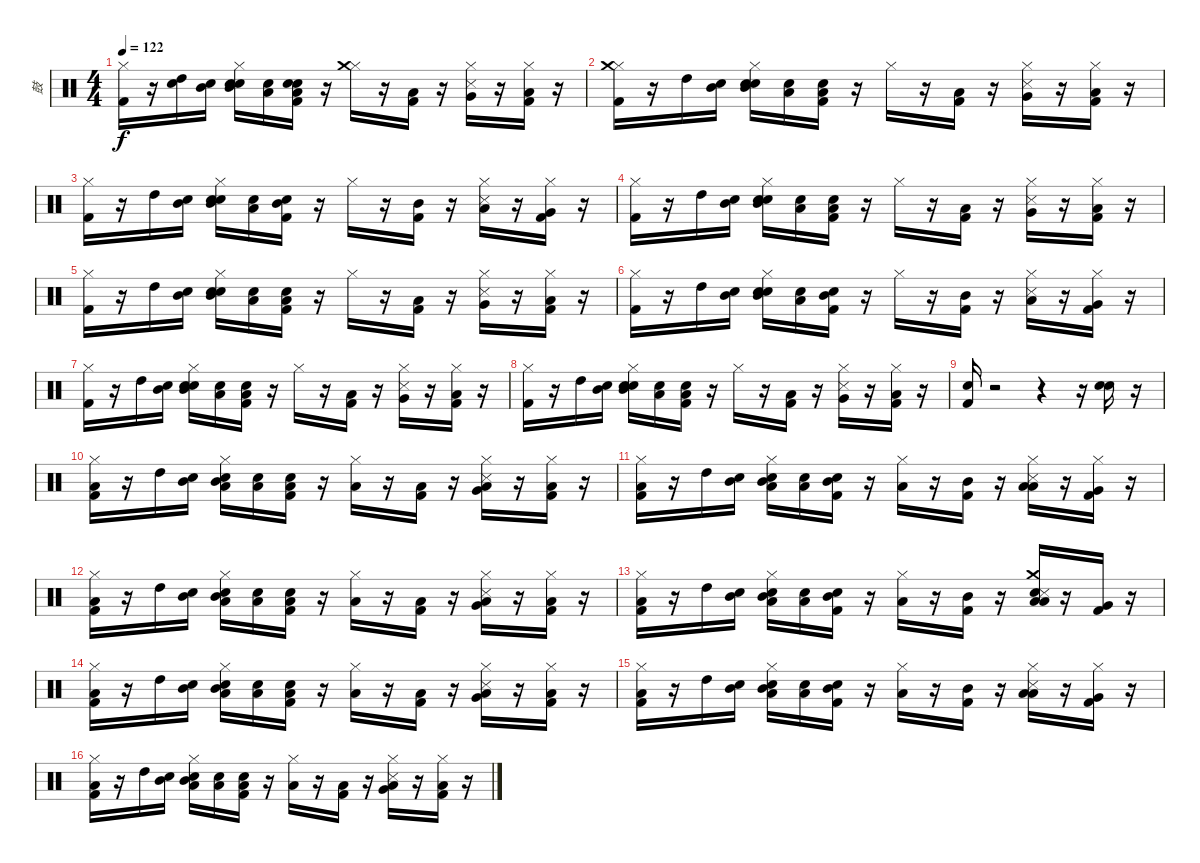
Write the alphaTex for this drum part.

\track ("鼓" "鼓") {instrument percussion}
\staff {score}
\articulation defaults
\ts (4 4)
\tempo 122
\clef neutral
\ks c
("Hi-Hat (closed)" "Kick (hit) 2").16{dy f} r.16 ("High Tom (hit)" "Snare (hit) 2").16 ("Snare (hit)" "Mid Tom (hit)").16 ("Snare (hit)" "Snare (hit) 2" "Hi-Hat (closed)" "Mid Tom (hit)").16 ("Snare (hit)" "Low Tom (hit)").16 ("Snare (hit)" "Low Tom (hit)" "Kick (hit) 2" "Snare (hit) 2").16 r.16 ("Hi-Hat (closed)" "Crash medium (hit)").16 r.16 ("Kick (hit) 2" "Low Tom (hit)").16 r.16 ("Hi-Hat (closed)" "Very Low Tom (hit)" "Snare (side stick) 3").16 r.16 ("Kick (hit) 2" "Low Floor Tom (hit)" "Hi-Hat (closed)").16 r.16 |
("Kick (hit) 2" "Hi-Hat (closed)" "Crash medium (hit)").16 r.16 "High Tom (hit)".16 ("Snare (hit)" "Mid Tom (hit)").16 ("Snare (hit)" "Snare (hit) 2" "Mid Tom (hit)" "Hi-Hat (closed)").16 ("Snare (hit)" "Low Tom (hit)").16 ("Snare (hit)" "Low Tom (hit)" "Kick (hit) 2").16 r.16 "Hi-Hat (closed)".16 r.16 ("Kick (hit) 2" "Low Tom (hit)").16 r.16 ("Very Low Tom (hit)" "Hi-Hat (closed)" "Snare (side stick) 3").16 r.16 ("Kick (hit) 2" "Low Floor Tom (hit)" "Hi-Hat (closed)").16 r.16 |
("Kick (hit) 2" "Hi-Hat (closed)").16 r.16 "High Tom (hit)".16 ("Snare (hit)" "Mid Tom (hit)").16 ("Snare (hit)" "Snare (hit) 2" "Hi-Hat (closed)" "Mid Tom (hit)").16 ("Snare (hit)" "Low Tom (hit)").16 ("Snare (hit)" "Kick (hit) 2" "Mid Tom (hit)").16 r.16 "Hi-Hat (closed)".16 r.16 ("Kick (hit) 2" "Mid Tom (hit)").16 r.16 ("Hi-Hat (closed)" "Low Tom (hit)" "Snare (side stick) 3").16 r.16 ("Kick (hit) 2" "Very Low Tom (hit)" "Hi-Hat (closed)").16 r.16 |
("Hi-Hat (closed)" "Kick (hit) 2").16 r.16 "High Tom (hit)".16 ("Snare (hit)" "Mid Tom (hit)").16 ("Snare (hit)" "Snare (hit) 2" "Hi-Hat (closed)" "Mid Tom (hit)").16 ("Snare (hit)" "Low Tom (hit)").16 ("Snare (hit)" "Low Tom (hit)" "Kick (hit) 2").16 r.16 "Hi-Hat (closed)".16 r.16 ("Kick (hit) 2" "Low Tom (hit)").16 r.16 ("Hi-Hat (closed)" "Very Low Tom (hit)" "Snare (side stick) 3").16 r.16 ("Kick (hit) 2" "Low Floor Tom (hit)" "Hi-Hat (closed)").16 r.16 |
("Hi-Hat (closed)" "Kick (hit) 2").16 r.16 "High Tom (hit)".16 ("Snare (hit)" "Mid Tom (hit)").16 ("Snare (hit)" "Snare (hit) 2" "Hi-Hat (closed)" "Mid Tom (hit)").16 ("Snare (hit)" "Low Tom (hit)").16 ("Snare (hit)" "Low Tom (hit)" "Kick (hit) 2").16 r.16 "Hi-Hat (closed)".16 r.16 ("Kick (hit) 2" "Low Tom (hit)").16 r.16 ("Hi-Hat (closed)" "Very Low Tom (hit)" "Snare (side stick) 3").16 r.16 ("Kick (hit) 2" "Low Floor Tom (hit)" "Hi-Hat (closed)").16 r.16 |
("Kick (hit) 2" "Hi-Hat (closed)").16 r.16 "High Tom (hit)".16 ("Snare (hit)" "Mid Tom (hit)").16 ("Snare (hit)" "Snare (hit) 2" "Hi-Hat (closed)" "Mid Tom (hit)").16 ("Snare (hit)" "Low Tom (hit)").16 ("Snare (hit)" "Kick (hit) 2" "Mid Tom (hit)").16 r.16 "Hi-Hat (closed)".16 r.16 ("Kick (hit) 2" "Mid Tom (hit)").16 r.16 ("Hi-Hat (closed)" "Low Tom (hit)" "Snare (side stick) 3").16 r.16 ("Kick (hit) 2" "Very Low Tom (hit)" "Hi-Hat (closed)").16 r.16 |
("Hi-Hat (closed)" "Kick (hit) 2").16 r.16 "High Tom (hit)".16 ("Snare (hit)" "Mid Tom (hit)").16 ("Snare (hit)" "Snare (hit) 2" "Hi-Hat (closed)" "Mid Tom (hit)").16 ("Snare (hit)" "Low Tom (hit)").16 ("Snare (hit)" "Low Tom (hit)" "Kick (hit) 2").16 r.16 "Hi-Hat (closed)".16 r.16 ("Kick (hit) 2" "Low Tom (hit)").16 r.16 ("Hi-Hat (closed)" "Very Low Tom (hit)" "Snare (side stick) 3").16 r.16 ("Kick (hit) 2" "Low Floor Tom (hit)" "Hi-Hat (closed)").16 r.16 |
("Hi-Hat (closed)" "Kick (hit) 2").16 r.16 "High Tom (hit)".16 ("Snare (hit)" "Mid Tom (hit)").16 ("Snare (hit)" "Snare (hit) 2" "Hi-Hat (closed)" "Mid Tom (hit)").16 ("Snare (hit)" "Low Tom (hit)").16 ("Snare (hit)" "Low Tom (hit)" "Kick (hit) 2").16 r.16 "Hi-Hat (closed)".16 r.16 ("Kick (hit) 2" "Low Tom (hit)").16 r.16 ("Hi-Hat (closed)" "Very Low Tom (hit)" "Snare (side stick) 3").16 r.16 ("Kick (hit) 2" "Low Floor Tom (hit)" "Hi-Hat (closed)").16 r.16 |
("Kick (hit) 2" "Electric Snare (hit)").16 r.2 r.4 r.16 ("Electric Snare (hit)" "Snare (hit) 2").16 r.16 |
("Kick (hit) 2" "Hi-Hat (closed)" "Low Floor Tom (hit)").16 r.16 "High Tom (hit)".16 ("Snare (hit)" "Mid Tom (hit)").16 ("Snare (hit)" "Mid Tom (hit)" "Hi-Hat (closed)" "Low Floor Tom (hit)").16 ("Snare (hit)" "Low Tom (hit)").16 ("Snare (hit)" "Low Tom (hit)" "Kick (hit) 2").16 r.16 ("Low Floor Tom (hit)" "Hi-Hat (closed)").16 r.16 ("Kick (hit) 2" "Low Tom (hit)").16 r.16 ("Low Floor Tom (hit)" "Very Low Tom (hit)" "Hi-Hat (closed)" "Snare (side stick) 3").16 r.16 ("Kick (hit) 2" "Low Floor Tom (hit)" "Hi-Hat (closed)").16 r.16 |
("Low Floor Tom (hit)" "Kick (hit) 2" "Hi-Hat (closed)").16 r.16 "High Tom (hit)".16 ("Snare (hit)" "Mid Tom (hit)").16 ("Snare (hit)" "Hi-Hat (closed)" "Mid Tom (hit)" "Low Floor Tom (hit)").16 ("Snare (hit)" "Low Tom (hit)").16 ("Snare (hit)" "Kick (hit) 2" "Mid Tom (hit)").16 r.16 ("Hi-Hat (closed)" "Low Floor Tom (hit)").16 r.16 ("Kick (hit) 2" "Mid Tom (hit)").16 r.16 ("Hi-Hat (closed)" "Low Tom (hit)" "Snare (side stick) 3" "Low Floor Tom (hit)").16 r.16 ("Kick (hit) 2" "Very Low Tom (hit)" "Hi-Hat (closed)").16 r.16 |
("Hi-Hat (closed)" "Kick (hit) 2" "Low Floor Tom (hit)").16 r.16 "High Tom (hit)".16 ("Snare (hit)" "Mid Tom (hit)").16 ("Snare (hit)" "Low Floor Tom (hit)" "Hi-Hat (closed)" "Mid Tom (hit)").16 ("Snare (hit)" "Low Tom (hit)").16 ("Snare (hit)" "Low Tom (hit)" "Kick (hit) 2").16 r.16 ("Low Floor Tom (hit)" "Hi-Hat (closed)").16 r.16 ("Kick (hit) 2" "Low Tom (hit)").16 r.16 ("Low Floor Tom (hit)" "Hi-Hat (closed)" "Very Low Tom (hit)" "Snare (side stick) 3").16 r.16 ("Kick (hit) 2" "Low Floor Tom (hit)" "Hi-Hat (closed)").16 r.16 |
("Low Floor Tom (hit)" "Kick (hit) 2" "Hi-Hat (closed)").16 r.16 "High Tom (hit)".16 ("Snare (hit)" "Mid Tom (hit)").16 ("Snare (hit)" "Hi-Hat (closed)" "Mid Tom (hit)" "Low Floor Tom (hit)").16 ("Snare (hit)" "Low Tom (hit)").16 ("Snare (hit)" "Kick (hit) 2" "Mid Tom (hit)").16 r.16 ("Hi-Hat (closed)" "Low Floor Tom (hit)").16 r.16 ("Kick (hit) 2" "Mid Tom (hit)").16 r.16 ("Low Floor Tom (hit)" "Snare (hit) 2" "Low Tom (hit)" "Crash medium (hit)" "Snare (side stick) 3").16 r.16 ("Kick (hit) 2" "Very Low Tom (hit)").16 r.16 |
("Kick (hit) 2" "Hi-Hat (closed)" "Low Floor Tom (hit)").16 r.16 "High Tom (hit)".16 ("Snare (hit)" "Mid Tom (hit)").16 ("Snare (hit)" "Mid Tom (hit)" "Hi-Hat (closed)" "Low Floor Tom (hit)").16 ("Snare (hit)" "Low Tom (hit)").16 ("Snare (hit)" "Low Tom (hit)" "Kick (hit) 2").16 r.16 ("Low Floor Tom (hit)" "Hi-Hat (closed)").16 r.16 ("Kick (hit) 2" "Low Tom (hit)").16 r.16 ("Low Floor Tom (hit)" "Very Low Tom (hit)" "Hi-Hat (closed)" "Snare (side stick) 3").16 r.16 ("Kick (hit) 2" "Low Floor Tom (hit)" "Hi-Hat (closed)").16 r.16 |
("Low Floor Tom (hit)" "Kick (hit) 2" "Hi-Hat (closed)").16 r.16 "High Tom (hit)".16 ("Snare (hit)" "Mid Tom (hit)").16 ("Snare (hit)" "Hi-Hat (closed)" "Mid Tom (hit)" "Low Floor Tom (hit)").16 ("Snare (hit)" "Low Tom (hit)").16 ("Snare (hit)" "Kick (hit) 2" "Mid Tom (hit)").16 r.16 ("Low Floor Tom (hit)" "Hi-Hat (closed)").16 r.16 ("Kick (hit) 2" "Mid Tom (hit)").16 r.16 ("Low Floor Tom (hit)" "Hi-Hat (closed)" "Low Tom (hit)" "Snare (side stick) 3").16 r.16 ("Kick (hit) 2" "Very Low Tom (hit)" "Hi-Hat (closed)").16 r.16 |
("Low Floor Tom (hit)" "Hi-Hat (closed)" "Kick (hit) 2").16 r.16 "High Tom (hit)".16 ("Snare (hit)" "Mid Tom (hit)").16 ("Snare (hit)" "Low Floor Tom (hit)" "Hi-Hat (closed)" "Mid Tom (hit)").16 ("Snare (hit)" "Low Tom (hit)").16 ("Snare (hit)" "Low Tom (hit)" "Kick (hit) 2").16 r.16 ("Low Floor Tom (hit)" "Hi-Hat (closed)").16 r.16 ("Kick (hit) 2" "Low Tom (hit)").16 r.16 ("Low Floor Tom (hit)" "Hi-Hat (closed)" "Very Low Tom (hit)" "Snare (side stick) 3").16 r.16 ("Kick (hit) 2" "Low Floor Tom (hit)" "Hi-Hat (closed)").16 r.16
